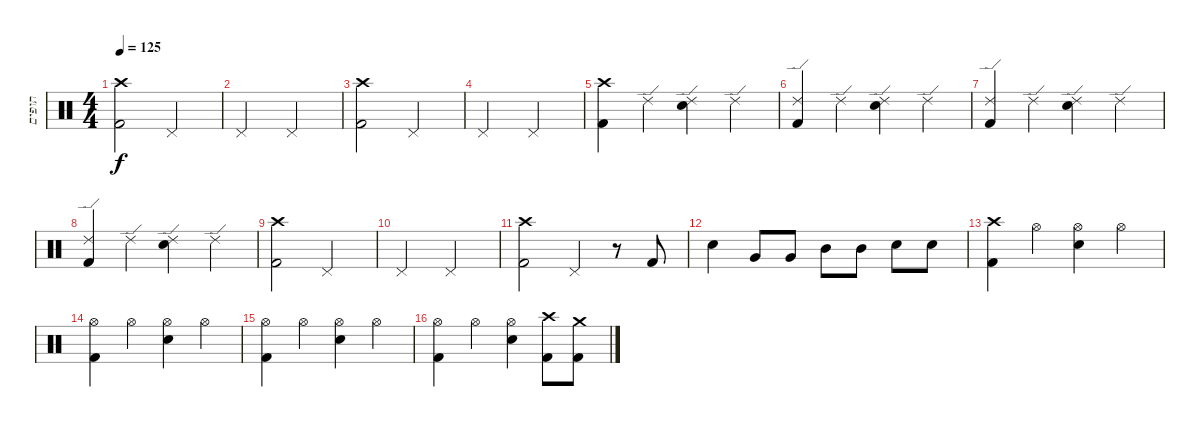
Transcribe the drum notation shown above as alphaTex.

\track ("תופים" "תופים") {instrument percussion}
\staff {score}
\articulation defaults
\ts (4 4)
\tempo 125
\clef neutral
\ks c
("Crash high (hit)" "Kick (hit) 2").2{dy f} "Pedal Hi-Hat (hit)".2 |
"Pedal Hi-Hat (hit)".2 "Pedal Hi-Hat (hit)".2 |
("Crash high (hit)" "Kick (hit) 2").2 "Pedal Hi-Hat (hit)".2 |
"Pedal Hi-Hat (hit)".2 "Pedal Hi-Hat (hit)".2 |
("Crash high (hit)" "Kick (hit) 2").4 "Ride (edge) 2".4 ("Ride (edge) 2" "Snare (hit) 2").4 "Ride (edge) 2".4 |
("Ride (edge) 2" "Kick (hit) 2").4 "Ride (edge) 2".4 ("Ride (edge) 2" "Snare (hit) 2").4 "Ride (edge) 2".4 |
("Ride (edge) 2" "Kick (hit) 2").4 "Ride (edge) 2".4 ("Ride (edge) 2" "Snare (hit) 2").4 "Ride (edge) 2".4 |
("Ride (edge) 2" "Kick (hit) 2").4 "Ride (edge) 2".4 ("Ride (edge) 2" "Snare (hit) 2").4 "Ride (edge) 2".4 |
("Crash high (hit)" "Kick (hit) 2").2 "Pedal Hi-Hat (hit)".2 |
"Pedal Hi-Hat (hit)".2 "Pedal Hi-Hat (hit)".2 |
("Crash high (hit)" "Kick (hit) 2").2 "Pedal Hi-Hat (hit)".4 r.8 "Kick (hit) 2".8 |
"Snare (hit) 2".4 "Very Low Tom (hit)".8 "Very Low Tom (hit)".8 "Mid Tom (hit)".8 "Mid Tom (hit)".8 "Snare (hit) 2".8 "Snare (hit) 2".8 |
("Crash high (hit)" "Kick (hit) 2").4 "Hi-Hat (open)".4 ("Hi-Hat (open)" "Snare (hit) 2").4 "Hi-Hat (open)".4 |
("Hi-Hat (open)" "Kick (hit) 2").4 "Hi-Hat (open)".4 ("Hi-Hat (open)" "Snare (hit) 2").4 "Hi-Hat (open)".4 |
("Hi-Hat (open)" "Kick (hit) 2").4 "Hi-Hat (open)".4 ("Hi-Hat (open)" "Snare (hit) 2").4 "Hi-Hat (open)".4 |
("Hi-Hat (open)" "Kick (hit) 2").4 "Hi-Hat (open)".4 ("Hi-Hat (open)" "Snare (hit) 2").4 ("Crash high (hit)" "Kick (hit) 2").8 ("Crash medium (hit)" "Kick (hit) 2").8
